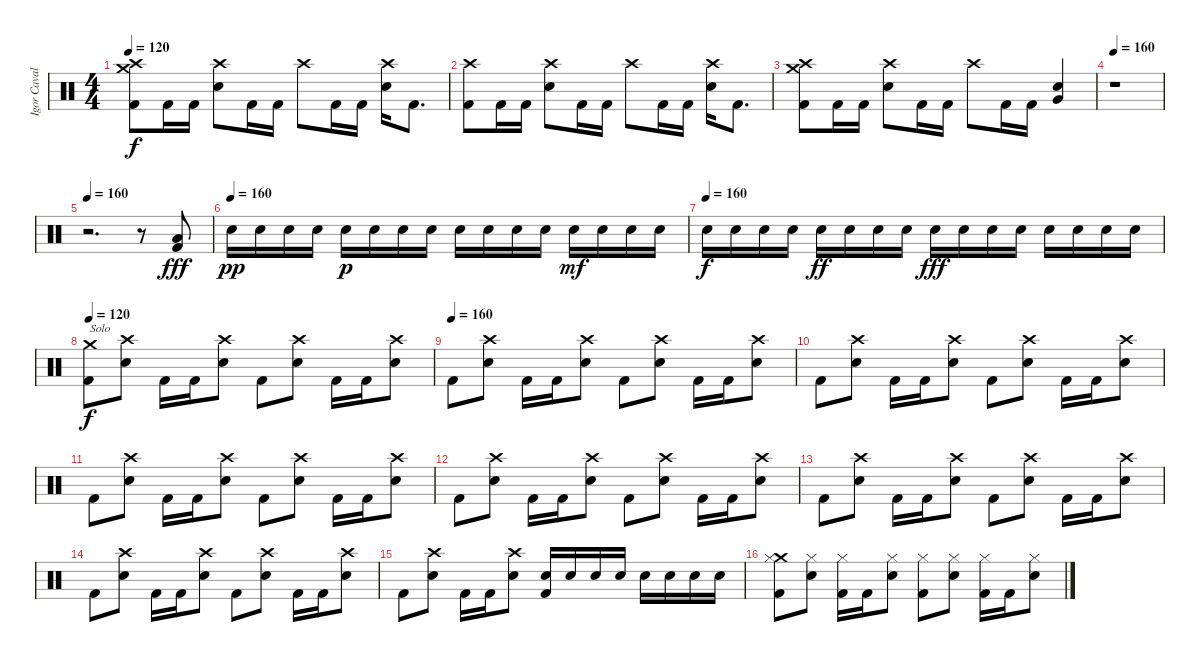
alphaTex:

\track ("Igor Cavalera" "Igor Caval") {instrument percussion}
\staff {score}
\articulation defaults
\ts (4 4)
\tempo 120
\clef neutral
\ks c
("Crash medium (hit)" "Crash high (hit)" "Kick (hit) 2").8{dy f} "Kick (hit) 2".16 "Kick (hit) 2".16 ("Crash high (hit)" "Electric Snare (hit)").8 "Kick (hit) 2".16 "Kick (hit) 2".16 "Crash high (hit)".8 "Kick (hit) 2".16 "Kick (hit) 2".16 ("Crash high (hit)" "Electric Snare (hit)").16 "Kick (hit) 2".8{d} |
("Crash high (hit)" "Kick (hit) 2").8 "Kick (hit) 2".16 "Kick (hit) 2".16 ("Crash high (hit)" "Electric Snare (hit)").8 "Kick (hit) 2".16 "Kick (hit) 2".16 "Crash high (hit)".8 "Kick (hit) 2".16 "Kick (hit) 2".16 ("Crash high (hit)" "Electric Snare (hit)").16 "Kick (hit) 2".8{d} |
("Crash medium (hit)" "Crash high (hit)" "Kick (hit) 2").8 "Kick (hit) 2".16 "Kick (hit) 2".16 ("Crash high (hit)" "Electric Snare (hit)").8 "Kick (hit) 2".16 "Kick (hit) 2".16 "Crash high (hit)".8 "Kick (hit) 2".16 "Kick (hit) 2".16 ("Very Low Tom (hit)" "Electric Snare (hit)").4 |
\tempo 160
r.1 |
\tempo 160
r.2{d} r.8 ("Low Floor Tom (hit)" "Kick (hit) 2").8{dy fff} |
\tempo (160)
"Electric Snare (hit)".16{dy pp} "Electric Snare (hit)".16 "Electric Snare (hit)".16 "Electric Snare (hit)".16 "Electric Snare (hit)".16{dy p} "Electric Snare (hit)".16 "Electric Snare (hit)".16 "Electric Snare (hit)".16 "Electric Snare (hit)".16 "Electric Snare (hit)".16 "Electric Snare (hit)".16 "Electric Snare (hit)".16 "Electric Snare (hit)".16{dy mf} "Electric Snare (hit)".16 "Electric Snare (hit)".16 "Electric Snare (hit)".16 |
\tempo (160)
"Electric Snare (hit)".16{dy f} "Electric Snare (hit)".16 "Electric Snare (hit)".16 "Electric Snare (hit)".16 "Electric Snare (hit)".16{dy ff} "Electric Snare (hit)".16 "Electric Snare (hit)".16 "Electric Snare (hit)".16 "Electric Snare (hit)".16{dy fff} "Electric Snare (hit)".16 "Electric Snare (hit)".16 "Electric Snare (hit)".16 "Electric Snare (hit)".16 "Electric Snare (hit)".16 "Electric Snare (hit)".16 "Electric Snare (hit)".16 |
\tempo 160
\tempo 120
("Crash medium (hit)" "Kick (hit) 2").8{txt "Solo" dy f} ("Crash high (hit)" "Electric Snare (hit)").8 "Kick (hit) 2".16 "Kick (hit) 2".16 ("Crash high (hit)" "Electric Snare (hit)").8 "Kick (hit) 2".8 ("Crash high (hit)" "Electric Snare (hit)").8 "Kick (hit) 2".16 "Kick (hit) 2".16 ("Crash high (hit)" "Electric Snare (hit)").8 |
\tempo (160)
"Kick (hit) 2".8 ("Crash high (hit)" "Electric Snare (hit)").8 "Kick (hit) 2".16 "Kick (hit) 2".16 ("Crash high (hit)" "Electric Snare (hit)").8 "Kick (hit) 2".8 ("Crash high (hit)" "Electric Snare (hit)").8 "Kick (hit) 2".16 "Kick (hit) 2".16 ("Crash high (hit)" "Electric Snare (hit)").8 |
"Kick (hit) 2".8 ("Crash high (hit)" "Electric Snare (hit)").8 "Kick (hit) 2".16 "Kick (hit) 2".16 ("Crash high (hit)" "Electric Snare (hit)").8 "Kick (hit) 2".8 ("Crash high (hit)" "Electric Snare (hit)").8 "Kick (hit) 2".16 "Kick (hit) 2".16 ("Crash high (hit)" "Electric Snare (hit)").8 |
"Kick (hit) 2".8 ("Crash high (hit)" "Electric Snare (hit)").8 "Kick (hit) 2".16 "Kick (hit) 2".16 ("Crash high (hit)" "Electric Snare (hit)").8 "Kick (hit) 2".8 ("Crash high (hit)" "Electric Snare (hit)").8 "Kick (hit) 2".16 "Kick (hit) 2".16 ("Crash high (hit)" "Electric Snare (hit)").8 |
"Kick (hit) 2".8 ("Crash high (hit)" "Electric Snare (hit)").8 "Kick (hit) 2".16 "Kick (hit) 2".16 ("Crash high (hit)" "Electric Snare (hit)").8 "Kick (hit) 2".8 ("Crash high (hit)" "Electric Snare (hit)").8 "Kick (hit) 2".16 "Kick (hit) 2".16 ("Crash high (hit)" "Electric Snare (hit)").8 |
"Kick (hit) 2".8 ("Crash high (hit)" "Electric Snare (hit)").8 "Kick (hit) 2".16 "Kick (hit) 2".16 ("Crash high (hit)" "Electric Snare (hit)").8 "Kick (hit) 2".8 ("Crash high (hit)" "Electric Snare (hit)").8 "Kick (hit) 2".16 "Kick (hit) 2".16 ("Crash high (hit)" "Electric Snare (hit)").8 |
"Kick (hit) 2".8 ("Crash high (hit)" "Electric Snare (hit)").8 "Kick (hit) 2".16 "Kick (hit) 2".16 ("Crash high (hit)" "Electric Snare (hit)").8 "Kick (hit) 2".8 ("Crash high (hit)" "Electric Snare (hit)").8 "Kick (hit) 2".16 "Kick (hit) 2".16 ("Crash high (hit)" "Electric Snare (hit)").8 |
"Kick (hit) 2".8 ("Crash high (hit)" "Electric Snare (hit)").8 "Kick (hit) 2".16 "Kick (hit) 2".16 ("Crash high (hit)" "Electric Snare (hit)").8 ("Electric Snare (hit)" "Kick (hit) 2").16 "Electric Snare (hit)".16 "Electric Snare (hit)".16 "Electric Snare (hit)".16 "Electric Snare (hit)".16 "Electric Snare (hit)".16 "Electric Snare (hit)".16 "Electric Snare (hit)".16 |
("Crash medium (hit)" "Hi-Hat (closed)" "Kick (hit) 2").8 ("Electric Snare (hit)" "Hi-Hat (closed)").8 ("Hi-Hat (closed)" "Kick (hit) 2").16 "Kick (hit) 2".16 ("Electric Snare (hit)" "Hi-Hat (closed)").8 ("Hi-Hat (closed)" "Kick (hit) 2").8 ("Electric Snare (hit)" "Hi-Hat (closed)").8 ("Hi-Hat (closed)" "Kick (hit) 2").16 "Kick (hit) 2".16 ("Electric Snare (hit)" "Hi-Hat (closed)").8
